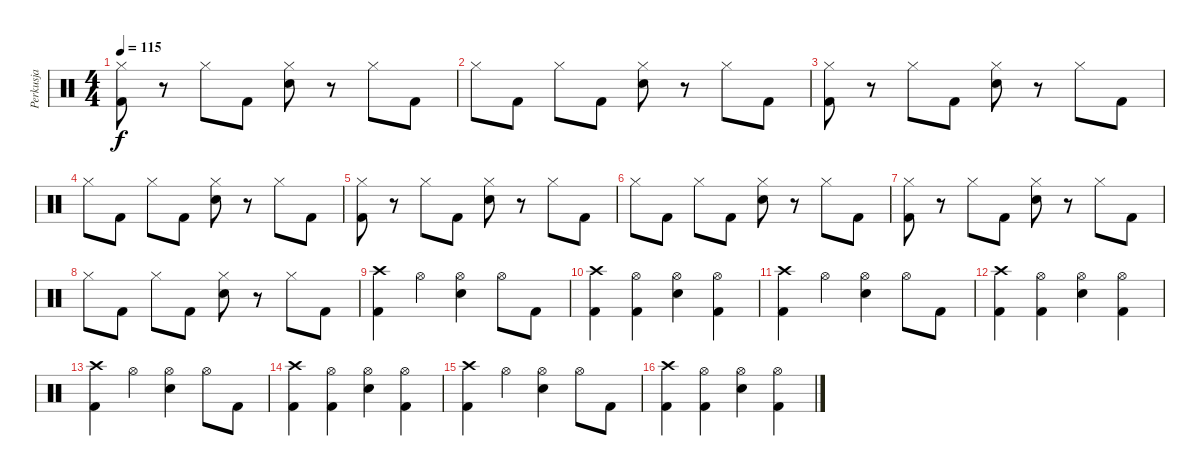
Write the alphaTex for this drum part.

\track ("Perkusja" "Perkusja") {instrument percussion}
\staff {score}
\articulation defaults
\ts (4 4)
\tempo 115
\clef neutral
\ks c
("Hi-Hat (closed)" "Kick (hit) 2").8{dy f} r.8 "Hi-Hat (closed)".8 "Kick (hit) 2".8 ("Hi-Hat (closed)" "Electric Snare (hit)").8 r.8 "Hi-Hat (closed)".8 "Kick (hit) 2".8 |
"Hi-Hat (closed)".8 "Kick (hit) 2".8 "Hi-Hat (closed)".8 "Kick (hit) 2".8 ("Hi-Hat (closed)" "Electric Snare (hit)").8 r.8 "Hi-Hat (closed)".8 "Kick (hit) 2".8 |
("Hi-Hat (closed)" "Kick (hit) 2").8 r.8 "Hi-Hat (closed)".8 "Kick (hit) 2".8 ("Hi-Hat (closed)" "Electric Snare (hit)").8 r.8 "Hi-Hat (closed)".8 "Kick (hit) 2".8 |
"Hi-Hat (closed)".8 "Kick (hit) 2".8 "Hi-Hat (closed)".8 "Kick (hit) 2".8 ("Hi-Hat (closed)" "Electric Snare (hit)").8 r.8 "Hi-Hat (closed)".8 "Kick (hit) 2".8 |
("Hi-Hat (closed)" "Kick (hit) 2").8 r.8 "Hi-Hat (closed)".8 "Kick (hit) 2".8 ("Hi-Hat (closed)" "Electric Snare (hit)").8 r.8 "Hi-Hat (closed)".8 "Kick (hit) 2".8 |
"Hi-Hat (closed)".8 "Kick (hit) 2".8 "Hi-Hat (closed)".8 "Kick (hit) 2".8 ("Hi-Hat (closed)" "Electric Snare (hit)").8 r.8 "Hi-Hat (closed)".8 "Kick (hit) 2".8 |
("Hi-Hat (closed)" "Kick (hit) 2").8 r.8 "Hi-Hat (closed)".8 "Kick (hit) 2".8 ("Hi-Hat (closed)" "Electric Snare (hit)").8 r.8 "Hi-Hat (closed)".8 "Kick (hit) 2".8 |
"Hi-Hat (closed)".8 "Kick (hit) 2".8 "Hi-Hat (closed)".8 "Kick (hit) 2".8 ("Hi-Hat (closed)" "Electric Snare (hit)").8 r.8 "Hi-Hat (closed)".8 "Kick (hit) 2".8 |
("Crash high (hit)" "Kick (hit) 2").4 "Hi-Hat (open)".4 ("Hi-Hat (open)" "Electric Snare (hit)").4 "Hi-Hat (open)".8 "Kick (hit) 2".8 |
("Crash high (hit)" "Kick (hit) 2").4 ("Hi-Hat (open)" "Kick (hit) 2").4 ("Hi-Hat (open)" "Electric Snare (hit)").4 ("Hi-Hat (open)" "Kick (hit) 2").4 |
("Crash high (hit)" "Kick (hit) 2").4 "Hi-Hat (open)".4 ("Hi-Hat (open)" "Electric Snare (hit)").4 "Hi-Hat (open)".8 "Kick (hit) 2".8 |
("Crash high (hit)" "Kick (hit) 2").4 ("Hi-Hat (open)" "Kick (hit) 2").4 ("Hi-Hat (open)" "Electric Snare (hit)").4 ("Hi-Hat (open)" "Kick (hit) 2").4 |
("Crash high (hit)" "Kick (hit) 2").4 "Hi-Hat (open)".4 ("Hi-Hat (open)" "Electric Snare (hit)").4 "Hi-Hat (open)".8 "Kick (hit) 2".8 |
("Crash high (hit)" "Kick (hit) 2").4 ("Hi-Hat (open)" "Kick (hit) 2").4 ("Hi-Hat (open)" "Electric Snare (hit)").4 ("Hi-Hat (open)" "Kick (hit) 2").4 |
("Crash high (hit)" "Kick (hit) 2").4 "Hi-Hat (open)".4 ("Hi-Hat (open)" "Electric Snare (hit)").4 "Hi-Hat (open)".8 "Kick (hit) 2".8 |
("Crash high (hit)" "Kick (hit) 2").4 ("Hi-Hat (open)" "Kick (hit) 2").4 ("Hi-Hat (open)" "Electric Snare (hit)").4 ("Hi-Hat (open)" "Kick (hit) 2").4
